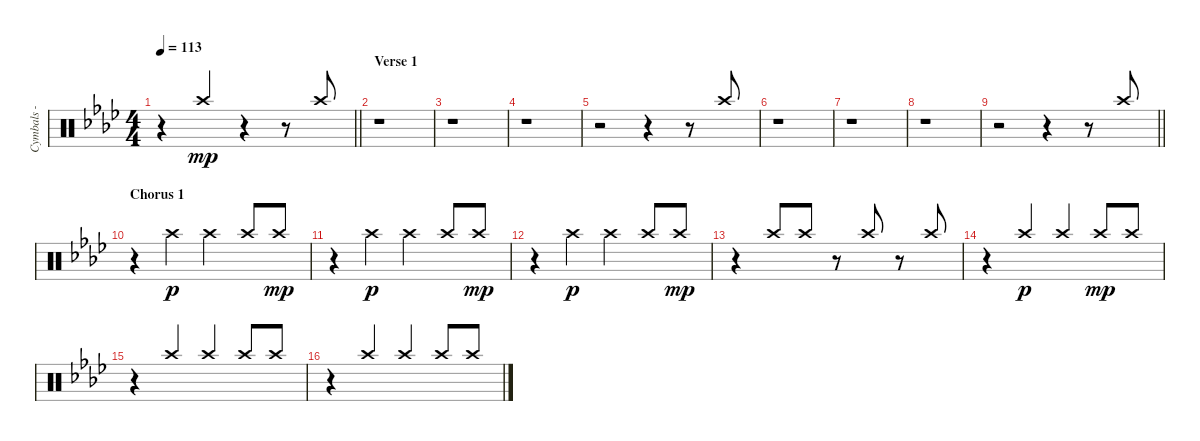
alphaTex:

\track ("Cymbals - crash" "Cymbals - ") {instrument percussion}
\staff {score}
\articulation defaults
\ts (4 4)
\tempo 113
\clef neutral
\barLineRight lightlight
\ks fminor
r.4{dy mp beam Up} "Crash high (hit)".4{beam Up} r.4{beam Up} r.8 "Crash high (hit)".8{beam Up} |
\section ("" "Verse 1")
r.1 |
r.1 |
r.1 |
r.2 r.4 r.8 "Crash high (hit)".8{beam Up} |
r.1 |
r.1 |
r.1 |
\barLineRight lightlight
r.2 r.4 r.8 "Crash high (hit)".8{beam Up} |
\section ("" "Chorus 1")
r.4 "Crash high (hit)".4{dy p volume 10 balance 5} "Crash high (hit)".4 "Crash high (hit)".8 "Crash high (hit)".8{dy mp volume 13 balance 8 beam Up} |
r.4 "Crash high (hit)".4{dy p volume 9 balance 5} "Crash high (hit)".4 "Crash high (hit)".8 "Crash high (hit)".8{dy mp volume 13 balance 8 beam Up} |
r.4 "Crash high (hit)".4{dy p volume 9 balance 5} "Crash high (hit)".4 "Crash high (hit)".8 "Crash high (hit)".8{dy mp volume 13 balance 8 beam Up} |
r.4 "Crash high (hit)".8{volume 8 balance 5 beam Up} "Crash high (hit)".8{volume 13 balance 8 beam Up} r.8 "Crash high (hit)".8{volume 9 balance 5 beam Up} r.8 "Crash high (hit)".8{volume 13 balance 8 beam Up} |
r.4{beam Up} "Crash high (hit)".4{dy p volume 9 balance 5 beam Up} "Crash high (hit)".4{beam Up} "Crash high (hit)".8{dy mp beam Up} "Crash high (hit)".8{volume 13 balance 8 beam Up} |
r.4 "Crash high (hit)".4{volume 9 balance 5 beam Up} "Crash high (hit)".4{beam Up} "Crash high (hit)".8{beam Up} "Crash high (hit)".8{volume 13 balance 8 beam Up} |
r.4 "Crash high (hit)".4{volume 9 balance 5 beam Up} "Crash high (hit)".4{beam Up} "Crash high (hit)".8{beam Up} "Crash high (hit)".8{volume 13 balance 8 beam Up}
